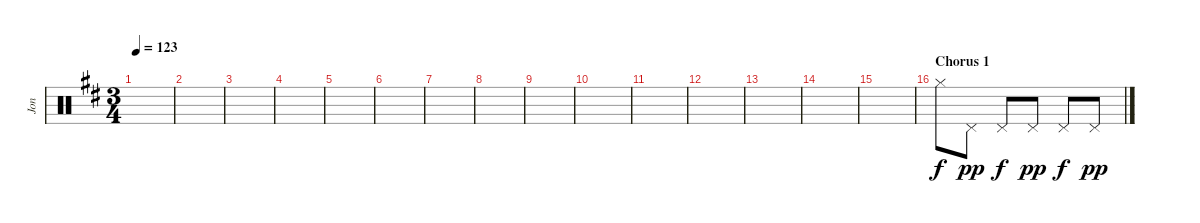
\track ("Jon" "Jon") {instrument percussion}
\staff {score}
\articulation defaults
\ts (3 4)
\tempo 123
\clef neutral
\ks d
|
|
|
|
|
|
|
\section ("" "")
|
|
|
|
|
|
|
|
\section ("" "Chorus 1")
"Hi-Hat (closed)".8 "Pedal Hi-Hat (hit)".8{dy pp} "Pedal Hi-Hat (hit)".8{dy f} "Pedal Hi-Hat (hit)".8{dy pp} "Pedal Hi-Hat (hit)".8{dy f} "Pedal Hi-Hat (hit)".8{dy pp}
